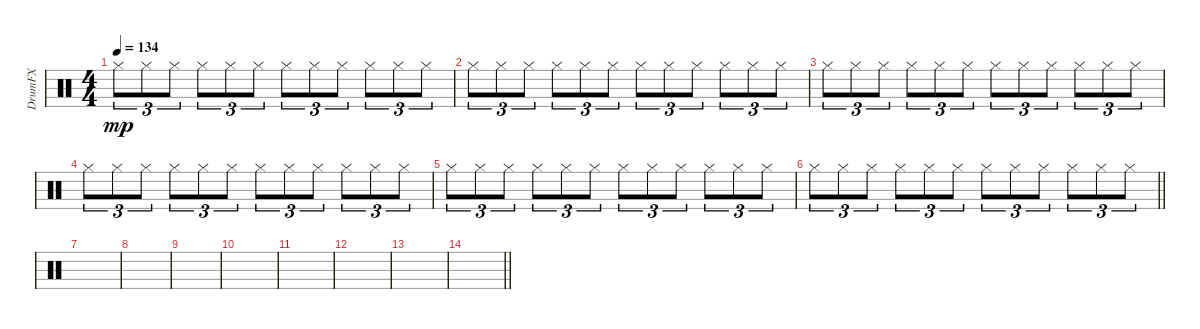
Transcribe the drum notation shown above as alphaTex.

\track ("DrumFX" "DrumFX") {instrument percussion}
\staff {score}
\articulation defaults
\ts (4 4)
\tempo 134
\clef neutral
\ks c "Hi-Hat (closed)".8{tu (3 2) dy mp} "Hi-Hat (closed)".8{tu (3 2)} "Hi-Hat (closed)".8{tu (3 2)} "Hi-Hat (closed)".8{tu (3 2)} "Hi-Hat (closed)".8{tu (3 2)} "Hi-Hat (closed)".8{tu (3 2)} "Hi-Hat (closed)".8{tu (3 2)} "Hi-Hat (closed)".8{tu (3 2)} "Hi-Hat (closed)".8{tu (3 2)} "Hi-Hat (closed)".8{tu (3 2)} "Hi-Hat (closed)".8{tu (3 2)} "Hi-Hat (closed)".8{tu (3 2)}
|
"Hi-Hat (closed)".8{tu (3 2)} "Hi-Hat (closed)".8{tu (3 2)} "Hi-Hat (closed)".8{tu (3 2)} "Hi-Hat (closed)".8{tu (3 2)} "Hi-Hat (closed)".8{tu (3 2)} "Hi-Hat (closed)".8{tu (3 2)} "Hi-Hat (closed)".8{tu (3 2)} "Hi-Hat (closed)".8{tu (3 2)} "Hi-Hat (closed)".8{tu (3 2)} "Hi-Hat (closed)".8{tu (3 2)} "Hi-Hat (closed)".8{tu (3 2)} "Hi-Hat (closed)".8{tu (3 2)} |
"Hi-Hat (closed)".8{tu (3 2)} "Hi-Hat (closed)".8{tu (3 2)} "Hi-Hat (closed)".8{tu (3 2)} "Hi-Hat (closed)".8{tu (3 2)} "Hi-Hat (closed)".8{tu (3 2)} "Hi-Hat (closed)".8{tu (3 2)} "Hi-Hat (closed)".8{tu (3 2)} "Hi-Hat (closed)".8{tu (3 2)} "Hi-Hat (closed)".8{tu (3 2)} "Hi-Hat (closed)".8{tu (3 2)} "Hi-Hat (closed)".8{tu (3 2)} "Hi-Hat (closed)".8{tu (3 2)} |
"Hi-Hat (closed)".8{tu (3 2)} "Hi-Hat (closed)".8{tu (3 2)} "Hi-Hat (closed)".8{tu (3 2)} "Hi-Hat (closed)".8{tu (3 2)} "Hi-Hat (closed)".8{tu (3 2)} "Hi-Hat (closed)".8{tu (3 2)} "Hi-Hat (closed)".8{tu (3 2)} "Hi-Hat (closed)".8{tu (3 2)} "Hi-Hat (closed)".8{tu (3 2)} "Hi-Hat (closed)".8{tu (3 2)} "Hi-Hat (closed)".8{tu (3 2)} "Hi-Hat (closed)".8{tu (3 2)} |
"Hi-Hat (closed)".8{tu (3 2)} "Hi-Hat (closed)".8{tu (3 2)} "Hi-Hat (closed)".8{tu (3 2)} "Hi-Hat (closed)".8{tu (3 2)} "Hi-Hat (closed)".8{tu (3 2)} "Hi-Hat (closed)".8{tu (3 2)} "Hi-Hat (closed)".8{tu (3 2)} "Hi-Hat (closed)".8{tu (3 2)} "Hi-Hat (closed)".8{tu (3 2)} "Hi-Hat (closed)".8{tu (3 2)} "Hi-Hat (closed)".8{tu (3 2)} "Hi-Hat (closed)".8{tu (3 2)} |
\barLineRight lightlight "Hi-Hat (closed)".8{tu (3 2)} "Hi-Hat (closed)".8{tu (3 2)} "Hi-Hat (closed)".8{tu (3 2)} "Hi-Hat (closed)".8{tu (3 2)} "Hi-Hat (closed)".8{tu (3 2)} "Hi-Hat (closed)".8{tu (3 2)} "Hi-Hat (closed)".8{tu (3 2)} "Hi-Hat (closed)".8{tu (3 2)} "Hi-Hat (closed)".8{tu (3 2)} "Hi-Hat (closed)".8{tu (3 2)} "Hi-Hat (closed)".8{tu (3 2)} "Hi-Hat (closed)".8{tu (3 2)}
|
\section ("" "")
|
|
|
|
|
|
|
\barLineRight lightlight
